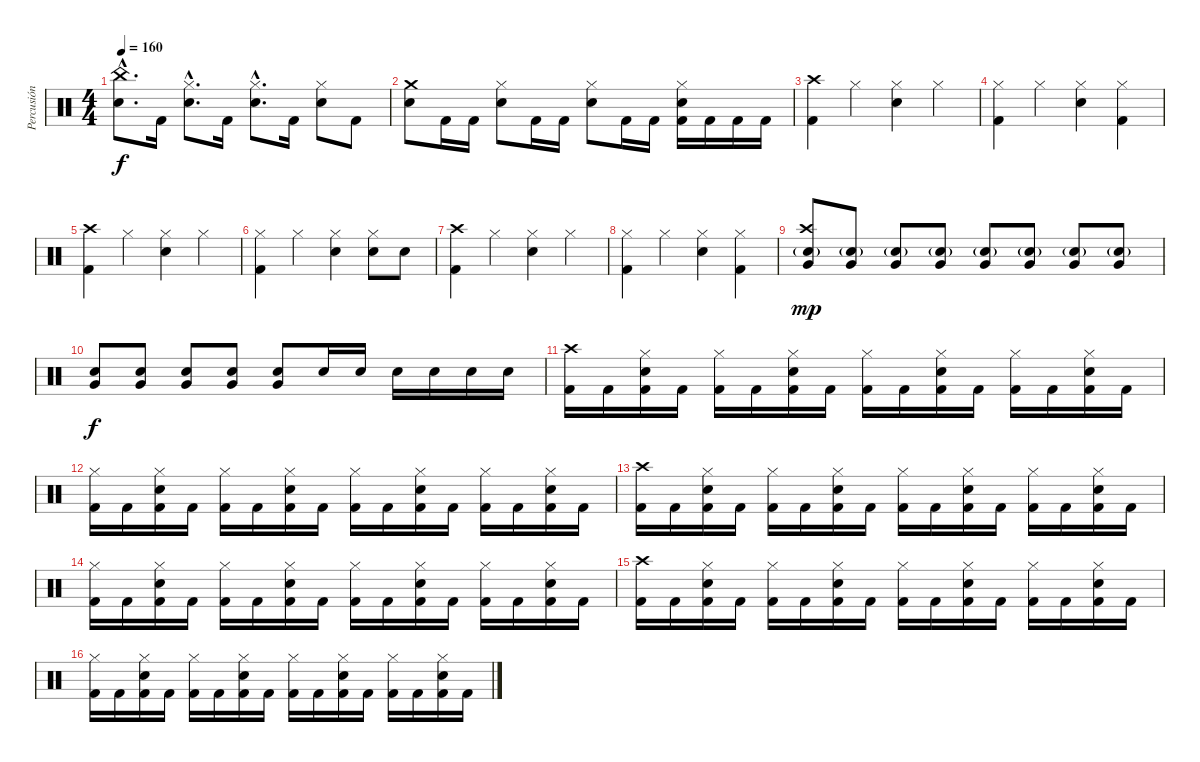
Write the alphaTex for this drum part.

\track ("Percusión" "Percusión") {instrument percussion}
\staff {score}
\articulation defaults
\ts (4 4)
\tempo 160
\clef neutral
\ks c
("China (hit)"{hac} "Electric Snare (hit)"{hac}).8{d dy f} "Kick (hit) 2".16 ("Hi-Hat (closed)"{hac} "Electric Snare (hit)"{hac}).8{d} "Kick (hit) 2".16 ("Hi-Hat (closed)"{hac} "Electric Snare (hit)"{hac}).8{d} "Kick (hit) 2".16 ("Hi-Hat (closed)" "Electric Snare (hit)").8 "Kick (hit) 2".8 |
("Crash medium (hit)" "Electric Snare (hit)").8 "Kick (hit) 2".16 "Kick (hit) 2".16 ("Hi-Hat (closed)" "Electric Snare (hit)").8 "Kick (hit) 2".16 "Kick (hit) 2".16 ("Hi-Hat (closed)" "Electric Snare (hit)").8 "Kick (hit) 2".16 "Kick (hit) 2".16 ("Hi-Hat (closed)" "Electric Snare (hit)" "Kick (hit) 2").16 "Kick (hit) 2".16 "Kick (hit) 2".16 "Kick (hit) 2".16 |
("Crash high (hit)" "Kick (hit) 2").4 "Hi-Hat (closed)".4 ("Hi-Hat (closed)" "Electric Snare (hit)").4 "Hi-Hat (closed)".4 |
("Hi-Hat (closed)" "Kick (hit) 2").4 "Hi-Hat (closed)".4 ("Hi-Hat (closed)" "Electric Snare (hit)").4 ("Hi-Hat (closed)" "Kick (hit) 2").4 |
("Crash high (hit)" "Kick (hit) 2").4 "Hi-Hat (closed)".4 ("Hi-Hat (closed)" "Electric Snare (hit)").4 "Hi-Hat (closed)".4 |
("Hi-Hat (closed)" "Kick (hit) 2").4 "Hi-Hat (closed)".4 ("Hi-Hat (closed)" "Electric Snare (hit)").4 ("Hi-Hat (closed)" "Electric Snare (hit)").8 "Electric Snare (hit)".8 |
("Crash high (hit)" "Kick (hit) 2").4 "Hi-Hat (closed)".4 ("Hi-Hat (closed)" "Electric Snare (hit)").4 "Hi-Hat (closed)".4 |
("Hi-Hat (closed)" "Kick (hit) 2").4 "Hi-Hat (closed)".4 ("Hi-Hat (closed)" "Electric Snare (hit)").4 ("Hi-Hat (closed)" "Kick (hit) 2").4 |
("Crash high (hit)" "Very Low Tom (hit)" "Electric Snare (hit)"{g}).8{dy mp} ("Very Low Tom (hit)" "Electric Snare (hit)"{g}).8 ("Very Low Tom (hit)" "Electric Snare (hit)"{g}).8 ("Very Low Tom (hit)" "Electric Snare (hit)"{g}).8 ("Very Low Tom (hit)" "Electric Snare (hit)"{g}).8 ("Very Low Tom (hit)" "Electric Snare (hit)"{g}).8 ("Very Low Tom (hit)" "Electric Snare (hit)"{g}).8 ("Very Low Tom (hit)" "Electric Snare (hit)"{g}).8 |
("Very Low Tom (hit)" "Electric Snare (hit)").8{dy f} ("Very Low Tom (hit)" "Electric Snare (hit)").8 ("Very Low Tom (hit)" "Electric Snare (hit)").8 ("Very Low Tom (hit)" "Electric Snare (hit)").8 ("Very Low Tom (hit)" "Electric Snare (hit)").8 "Electric Snare (hit)".16 "Electric Snare (hit)".16 "Electric Snare (hit)".16 "Electric Snare (hit)".16 "Electric Snare (hit)".16 "Electric Snare (hit)".16 |
("Crash high (hit)" "Kick (hit) 2").16 "Kick (hit) 2".16 ("Hi-Hat (closed)" "Electric Snare (hit)" "Kick (hit) 2").16 "Kick (hit) 2".16 ("Hi-Hat (closed)" "Kick (hit) 2").16 "Kick (hit) 2".16 ("Hi-Hat (closed)" "Electric Snare (hit)" "Kick (hit) 2").16 "Kick (hit) 2".16 ("Hi-Hat (closed)" "Kick (hit) 2").16 "Kick (hit) 2".16 ("Hi-Hat (closed)" "Electric Snare (hit)" "Kick (hit) 2").16 "Kick (hit) 2".16 ("Hi-Hat (closed)" "Kick (hit) 2").16 "Kick (hit) 2".16 ("Hi-Hat (closed)" "Electric Snare (hit)" "Kick (hit) 2").16 "Kick (hit) 2".16 |
("Hi-Hat (closed)" "Kick (hit) 2").16 "Kick (hit) 2".16 ("Hi-Hat (closed)" "Electric Snare (hit)" "Kick (hit) 2").16 "Kick (hit) 2".16 ("Hi-Hat (closed)" "Kick (hit) 2").16 "Kick (hit) 2".16 ("Hi-Hat (closed)" "Electric Snare (hit)" "Kick (hit) 2").16 "Kick (hit) 2".16 ("Hi-Hat (closed)" "Kick (hit) 2").16 "Kick (hit) 2".16 ("Hi-Hat (closed)" "Electric Snare (hit)" "Kick (hit) 2").16 "Kick (hit) 2".16 ("Hi-Hat (closed)" "Kick (hit) 2").16 "Kick (hit) 2".16 ("Hi-Hat (closed)" "Electric Snare (hit)" "Kick (hit) 2").16 "Kick (hit) 2".16 |
("Crash high (hit)" "Kick (hit) 2").16 "Kick (hit) 2".16 ("Hi-Hat (closed)" "Electric Snare (hit)" "Kick (hit) 2").16 "Kick (hit) 2".16 ("Hi-Hat (closed)" "Kick (hit) 2").16 "Kick (hit) 2".16 ("Hi-Hat (closed)" "Electric Snare (hit)" "Kick (hit) 2").16 "Kick (hit) 2".16 ("Hi-Hat (closed)" "Kick (hit) 2").16 "Kick (hit) 2".16 ("Hi-Hat (closed)" "Electric Snare (hit)" "Kick (hit) 2").16 "Kick (hit) 2".16 ("Hi-Hat (closed)" "Kick (hit) 2").16 "Kick (hit) 2".16 ("Hi-Hat (closed)" "Electric Snare (hit)" "Kick (hit) 2").16 "Kick (hit) 2".16 |
("Hi-Hat (closed)" "Kick (hit) 2").16 "Kick (hit) 2".16 ("Hi-Hat (closed)" "Electric Snare (hit)" "Kick (hit) 2").16 "Kick (hit) 2".16 ("Hi-Hat (closed)" "Kick (hit) 2").16 "Kick (hit) 2".16 ("Hi-Hat (closed)" "Electric Snare (hit)" "Kick (hit) 2").16 "Kick (hit) 2".16 ("Hi-Hat (closed)" "Kick (hit) 2").16 "Kick (hit) 2".16 ("Hi-Hat (closed)" "Electric Snare (hit)" "Kick (hit) 2").16 "Kick (hit) 2".16 ("Hi-Hat (closed)" "Kick (hit) 2").16 "Kick (hit) 2".16 ("Hi-Hat (closed)" "Electric Snare (hit)" "Kick (hit) 2").16 "Kick (hit) 2".16 |
("Crash high (hit)" "Kick (hit) 2").16 "Kick (hit) 2".16 ("Hi-Hat (closed)" "Electric Snare (hit)" "Kick (hit) 2").16 "Kick (hit) 2".16 ("Hi-Hat (closed)" "Kick (hit) 2").16 "Kick (hit) 2".16 ("Hi-Hat (closed)" "Electric Snare (hit)" "Kick (hit) 2").16 "Kick (hit) 2".16 ("Hi-Hat (closed)" "Kick (hit) 2").16 "Kick (hit) 2".16 ("Hi-Hat (closed)" "Electric Snare (hit)" "Kick (hit) 2").16 "Kick (hit) 2".16 ("Hi-Hat (closed)" "Kick (hit) 2").16 "Kick (hit) 2".16 ("Hi-Hat (closed)" "Electric Snare (hit)" "Kick (hit) 2").16 "Kick (hit) 2".16 |
("Hi-Hat (closed)" "Kick (hit) 2").16 "Kick (hit) 2".16 ("Hi-Hat (closed)" "Electric Snare (hit)" "Kick (hit) 2").16 "Kick (hit) 2".16 ("Hi-Hat (closed)" "Kick (hit) 2").16 "Kick (hit) 2".16 ("Hi-Hat (closed)" "Electric Snare (hit)" "Kick (hit) 2").16 "Kick (hit) 2".16 ("Hi-Hat (closed)" "Kick (hit) 2").16 "Kick (hit) 2".16 ("Hi-Hat (closed)" "Electric Snare (hit)" "Kick (hit) 2").16 "Kick (hit) 2".16 ("Hi-Hat (closed)" "Kick (hit) 2").16 "Kick (hit) 2".16 ("Hi-Hat (closed)" "Electric Snare (hit)" "Kick (hit) 2").16 "Kick (hit) 2".16
